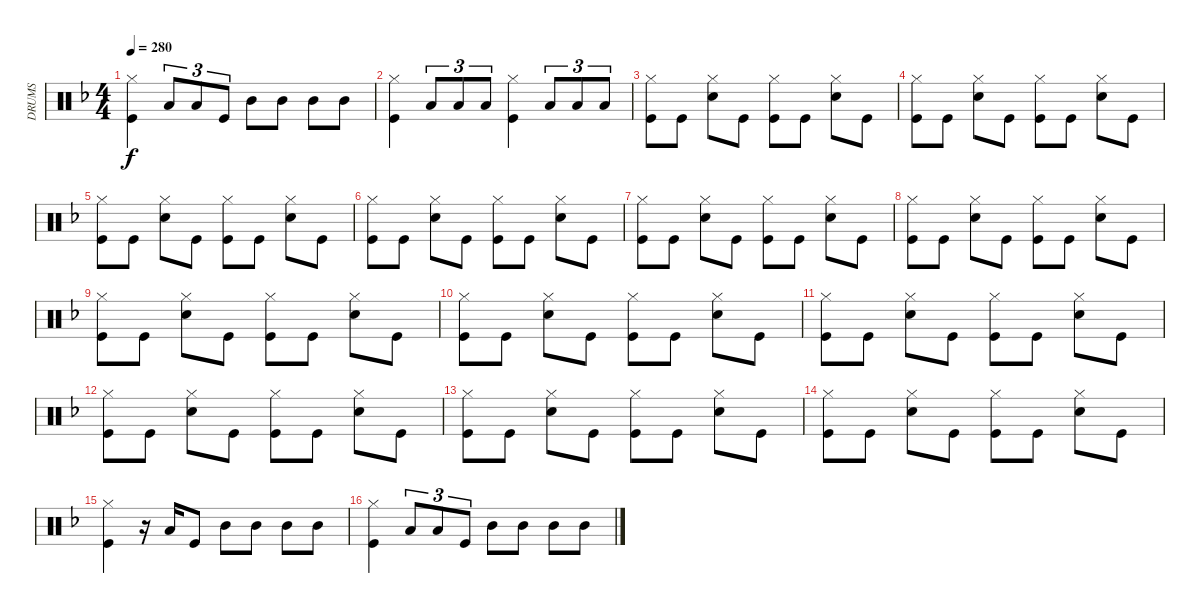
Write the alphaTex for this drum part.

\track ("DRUMS" "DRUMS") {instrument percussion}
\staff {score}
\articulation defaults
\ts (4 4)
\tempo 280
\clef neutral
\ks dminor
("Hi-Hat (closed)" "Kick (hit)").4{dy f} "Low Tom (hit)".8{tu (3 2)} "Low Tom (hit)".8{tu (3 2)} "Kick (hit)".8{tu (3 2)} "Mid Tom (hit)".8 "Mid Tom (hit)".8 "Mid Tom (hit)".8 "Mid Tom (hit)".8 |
("Hi-Hat (closed)" "Kick (hit)").4 "Low Tom (hit)".8{tu (3 2)} "Low Tom (hit)".8{tu (3 2)} "Low Tom (hit)".8{tu (3 2)} ("Hi-Hat (closed)" "Kick (hit)").4 "Low Tom (hit)".8{tu (3 2)} "Low Tom (hit)".8{tu (3 2)} "Low Tom (hit)".8{tu (3 2)} |
("Hi-Hat (closed)" "Kick (hit)").8 "Kick (hit)".8 ("Hi-Hat (closed)" "Snare (hit) 2").8 "Kick (hit)".8 ("Hi-Hat (closed)" "Kick (hit)").8 "Kick (hit)".8 ("Hi-Hat (closed)" "Snare (hit) 2").8 "Kick (hit)".8 |
("Hi-Hat (closed)" "Kick (hit)").8 "Kick (hit)".8 ("Hi-Hat (closed)" "Snare (hit) 2").8 "Kick (hit)".8 ("Hi-Hat (closed)" "Kick (hit)").8 "Kick (hit)".8 ("Hi-Hat (closed)" "Snare (hit) 2").8 "Kick (hit)".8 |
("Hi-Hat (closed)" "Kick (hit)").8 "Kick (hit)".8 ("Hi-Hat (closed)" "Snare (hit) 2").8 "Kick (hit)".8 ("Hi-Hat (closed)" "Kick (hit)").8 "Kick (hit)".8 ("Hi-Hat (closed)" "Snare (hit) 2").8 "Kick (hit)".8 |
("Hi-Hat (closed)" "Kick (hit)").8 "Kick (hit)".8 ("Hi-Hat (closed)" "Snare (hit) 2").8 "Kick (hit)".8 ("Hi-Hat (closed)" "Kick (hit)").8 "Kick (hit)".8 ("Hi-Hat (closed)" "Snare (hit) 2").8 "Kick (hit)".8 |
("Hi-Hat (closed)" "Kick (hit)").8 "Kick (hit)".8 ("Hi-Hat (closed)" "Snare (hit) 2").8 "Kick (hit)".8 ("Hi-Hat (closed)" "Kick (hit)").8 "Kick (hit)".8 ("Hi-Hat (closed)" "Snare (hit) 2").8 "Kick (hit)".8 |
("Hi-Hat (closed)" "Kick (hit)").8 "Kick (hit)".8 ("Hi-Hat (closed)" "Snare (hit) 2").8 "Kick (hit)".8 ("Hi-Hat (closed)" "Kick (hit)").8 "Kick (hit)".8 ("Hi-Hat (closed)" "Snare (hit) 2").8 "Kick (hit)".8 |
("Hi-Hat (closed)" "Kick (hit)").8 "Kick (hit)".8 ("Hi-Hat (closed)" "Snare (hit) 2").8 "Kick (hit)".8 ("Hi-Hat (closed)" "Kick (hit)").8 "Kick (hit)".8 ("Hi-Hat (closed)" "Snare (hit) 2").8 "Kick (hit)".8 |
("Hi-Hat (closed)" "Kick (hit)").8 "Kick (hit)".8 ("Hi-Hat (closed)" "Snare (hit) 2").8 "Kick (hit)".8 ("Hi-Hat (closed)" "Kick (hit)").8 "Kick (hit)".8 ("Hi-Hat (closed)" "Snare (hit) 2").8 "Kick (hit)".8 |
("Hi-Hat (closed)" "Kick (hit)").8 "Kick (hit)".8 ("Hi-Hat (closed)" "Snare (hit) 2").8 "Kick (hit)".8 ("Hi-Hat (closed)" "Kick (hit)").8 "Kick (hit)".8 ("Hi-Hat (closed)" "Snare (hit) 2").8 "Kick (hit)".8 |
("Hi-Hat (closed)" "Kick (hit)").8 "Kick (hit)".8 ("Hi-Hat (closed)" "Snare (hit) 2").8 "Kick (hit)".8 ("Hi-Hat (closed)" "Kick (hit)").8 "Kick (hit)".8 ("Hi-Hat (closed)" "Snare (hit) 2").8 "Kick (hit)".8 |
("Hi-Hat (closed)" "Kick (hit)").8 "Kick (hit)".8 ("Hi-Hat (closed)" "Snare (hit) 2").8 "Kick (hit)".8 ("Hi-Hat (closed)" "Kick (hit)").8 "Kick (hit)".8 ("Hi-Hat (closed)" "Snare (hit) 2").8 "Kick (hit)".8 |
("Hi-Hat (closed)" "Kick (hit)").8 "Kick (hit)".8 ("Hi-Hat (closed)" "Snare (hit) 2").8 "Kick (hit)".8 ("Hi-Hat (closed)" "Kick (hit)").8 "Kick (hit)".8 ("Hi-Hat (closed)" "Snare (hit) 2").8 "Kick (hit)".8 |
("Hi-Hat (closed)" "Kick (hit)").4 r.16 "Low Tom (hit)".16 "Kick (hit)".8 "Mid Tom (hit)".8 "Mid Tom (hit)".8 "Mid Tom (hit)".8 "Mid Tom (hit)".8 |
("Hi-Hat (closed)" "Kick (hit)").4 "Low Tom (hit)".8{tu (3 2)} "Low Tom (hit)".8{tu (3 2)} "Kick (hit)".8{tu (3 2)} "Mid Tom (hit)".8 "Mid Tom (hit)".8 "Mid Tom (hit)".8 "Mid Tom (hit)".8
